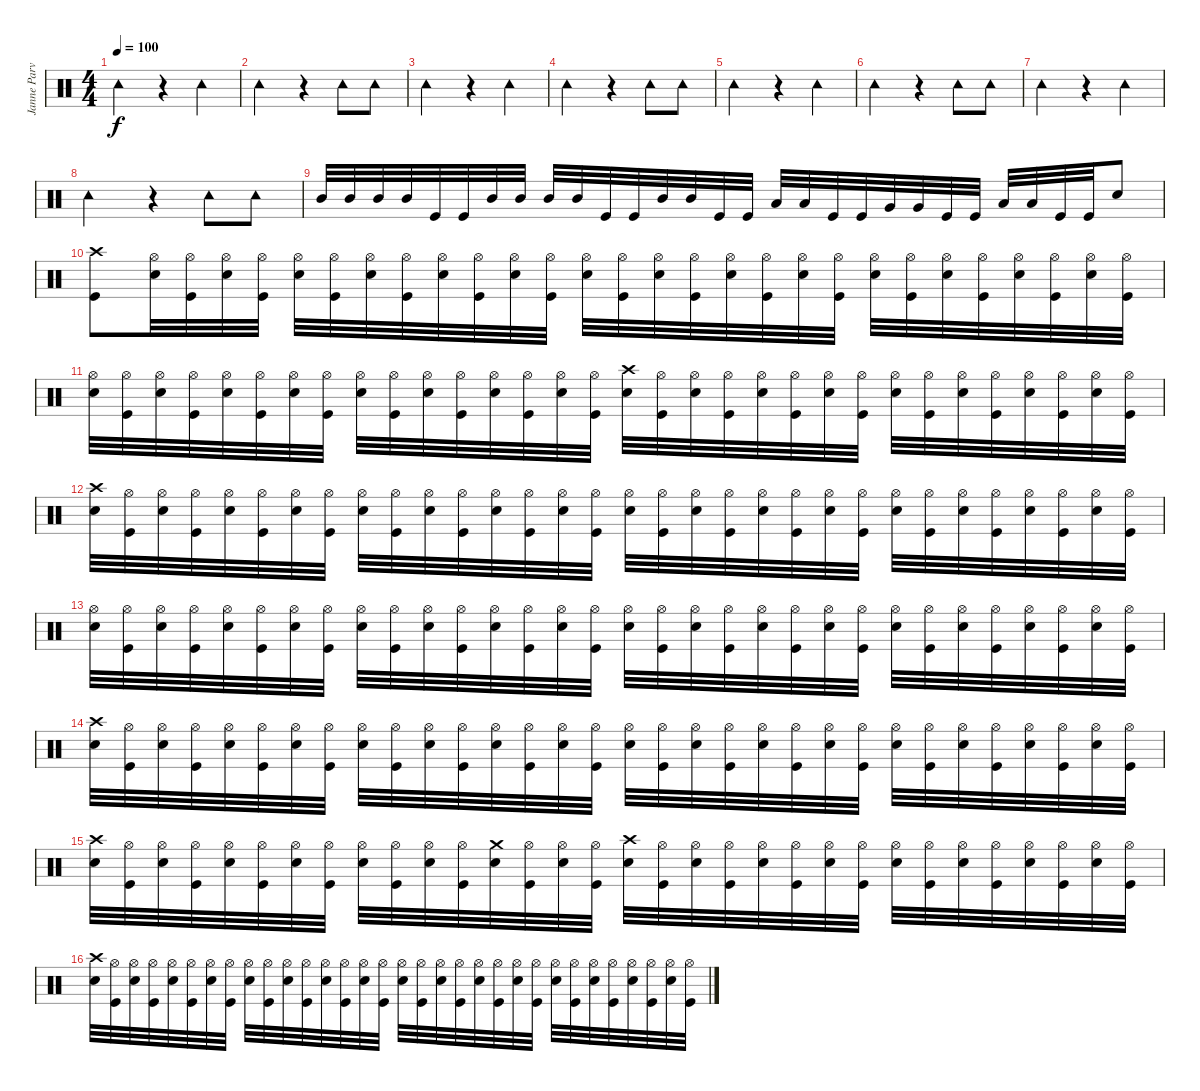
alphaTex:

\track ("Janne Parviainen" "Janne Parv") {instrument percussion}
\staff {score}
\articulation defaults
\ts (4 4)
\tempo 100
\clef neutral
\ks c "Tambourine (hit)".2{dy f}
r.4 "Tambourine (hit)".4 |
"Tambourine (hit)".2 r.4 "Tambourine (hit)".8 "Tambourine (hit)".8 |
"Tambourine (hit)".2 r.4 "Tambourine (hit)".4 |
"Tambourine (hit)".2 r.4 "Tambourine (hit)".8 "Tambourine (hit)".8 |
"Tambourine (hit)".2 r.4 "Tambourine (hit)".4 |
"Tambourine (hit)".2 r.4 "Tambourine (hit)".8 "Tambourine (hit)".8 |
"Tambourine (hit)".2 r.4 "Tambourine (hit)".4 |
"Tambourine (hit)".2 r.4 "Tambourine (hit)".8 "Tambourine (hit)".8 |
"Mid Tom (hit)".32{volume 14} "Mid Tom (hit)".32 "Mid Tom (hit)".32 "Mid Tom (hit)".32 "Kick (hit)".32 "Kick (hit)".32 "Mid Tom (hit)".32 "Mid Tom (hit)".32 "Mid Tom (hit)".32 "Mid Tom (hit)".32 "Kick (hit)".32 "Kick (hit)".32 "Mid Tom (hit)".32 "Mid Tom (hit)".32 "Kick (hit)".32 "Kick (hit)".32 "Low Tom (hit)".32 "Low Tom (hit)".32 "Kick (hit)".32 "Kick (hit)".32 "Very Low Tom (hit)".32 "Very Low Tom (hit)".32 "Kick (hit)".32 "Kick (hit)".32 "Low Floor Tom (hit)".32 "Low Floor Tom (hit)".32 "Kick (hit)".32 "Kick (hit)".32 "Electric Snare (hit)".8 |
("Crash high (hit)" "Kick (hit)").8 ("Hi-Hat (open)" "Electric Snare (hit)").32 ("Hi-Hat (open)" "Kick (hit)").32 ("Hi-Hat (open)" "Electric Snare (hit)").32 ("Hi-Hat (open)" "Kick (hit)").32 ("Hi-Hat (open)" "Electric Snare (hit)").32 ("Hi-Hat (open)" "Kick (hit)").32 ("Hi-Hat (open)" "Electric Snare (hit)").32 ("Hi-Hat (open)" "Kick (hit)").32 ("Hi-Hat (open)" "Electric Snare (hit)").32 ("Hi-Hat (open)" "Kick (hit)").32 ("Hi-Hat (open)" "Electric Snare (hit)").32 ("Hi-Hat (open)" "Kick (hit)").32 ("Hi-Hat (open)" "Electric Snare (hit)").32 ("Hi-Hat (open)" "Kick (hit)").32 ("Hi-Hat (open)" "Electric Snare (hit)").32 ("Hi-Hat (open)" "Kick (hit)").32 ("Hi-Hat (open)" "Electric Snare (hit)").32 ("Hi-Hat (open)" "Kick (hit)").32 ("Hi-Hat (open)" "Electric Snare (hit)").32 ("Hi-Hat (open)" "Kick (hit)").32 ("Hi-Hat (open)" "Electric Snare (hit)").32 ("Hi-Hat (open)" "Kick (hit)").32 ("Hi-Hat (open)" "Electric Snare (hit)").32 ("Hi-Hat (open)" "Kick (hit)").32 ("Hi-Hat (open)" "Electric Snare (hit)").32 ("Hi-Hat (open)" "Kick (hit)").32 ("Hi-Hat (open)" "Electric Snare (hit)").32 ("Hi-Hat (open)" "Kick (hit)").32 |
("Hi-Hat (open)" "Electric Snare (hit)").32 ("Hi-Hat (open)" "Kick (hit)").32 ("Hi-Hat (open)" "Electric Snare (hit)").32 ("Hi-Hat (open)" "Kick (hit)").32 ("Hi-Hat (open)" "Electric Snare (hit)").32 ("Hi-Hat (open)" "Kick (hit)").32 ("Hi-Hat (open)" "Electric Snare (hit)").32 ("Hi-Hat (open)" "Kick (hit)").32 ("Hi-Hat (open)" "Electric Snare (hit)").32 ("Hi-Hat (open)" "Kick (hit)").32 ("Hi-Hat (open)" "Electric Snare (hit)").32 ("Hi-Hat (open)" "Kick (hit)").32 ("Hi-Hat (open)" "Electric Snare (hit)").32 ("Hi-Hat (open)" "Kick (hit)").32 ("Hi-Hat (open)" "Electric Snare (hit)").32 ("Hi-Hat (open)" "Kick (hit)").32 ("Crash high (hit)" "Electric Snare (hit)").32 ("Hi-Hat (open)" "Kick (hit)").32 ("Hi-Hat (open)" "Electric Snare (hit)").32 ("Hi-Hat (open)" "Kick (hit)").32 ("Hi-Hat (open)" "Electric Snare (hit)").32 ("Hi-Hat (open)" "Kick (hit)").32 ("Hi-Hat (open)" "Electric Snare (hit)").32 ("Hi-Hat (open)" "Kick (hit)").32 ("Hi-Hat (open)" "Electric Snare (hit)").32 ("Hi-Hat (open)" "Kick (hit)").32 ("Hi-Hat (open)" "Electric Snare (hit)").32 ("Hi-Hat (open)" "Kick (hit)").32 ("Hi-Hat (open)" "Electric Snare (hit)").32 ("Hi-Hat (open)" "Kick (hit)").32 ("Hi-Hat (open)" "Electric Snare (hit)").32 ("Hi-Hat (open)" "Kick (hit)").32 |
("Crash high (hit)" "Electric Snare (hit)").32 ("Hi-Hat (open)" "Kick (hit)").32 ("Hi-Hat (open)" "Electric Snare (hit)").32 ("Hi-Hat (open)" "Kick (hit)").32 ("Hi-Hat (open)" "Electric Snare (hit)").32 ("Hi-Hat (open)" "Kick (hit)").32 ("Hi-Hat (open)" "Electric Snare (hit)").32 ("Hi-Hat (open)" "Kick (hit)").32 ("Hi-Hat (open)" "Electric Snare (hit)").32 ("Hi-Hat (open)" "Kick (hit)").32 ("Hi-Hat (open)" "Electric Snare (hit)").32 ("Hi-Hat (open)" "Kick (hit)").32 ("Hi-Hat (open)" "Electric Snare (hit)").32 ("Hi-Hat (open)" "Kick (hit)").32 ("Hi-Hat (open)" "Electric Snare (hit)").32 ("Hi-Hat (open)" "Kick (hit)").32 ("Hi-Hat (open)" "Electric Snare (hit)").32 ("Hi-Hat (open)" "Kick (hit)").32 ("Hi-Hat (open)" "Electric Snare (hit)").32 ("Hi-Hat (open)" "Kick (hit)").32 ("Hi-Hat (open)" "Electric Snare (hit)").32 ("Hi-Hat (open)" "Kick (hit)").32 ("Hi-Hat (open)" "Electric Snare (hit)").32 ("Hi-Hat (open)" "Kick (hit)").32 ("Hi-Hat (open)" "Electric Snare (hit)").32 ("Hi-Hat (open)" "Kick (hit)").32 ("Hi-Hat (open)" "Electric Snare (hit)").32 ("Hi-Hat (open)" "Kick (hit)").32 ("Hi-Hat (open)" "Electric Snare (hit)").32 ("Hi-Hat (open)" "Kick (hit)").32 ("Hi-Hat (open)" "Electric Snare (hit)").32 ("Hi-Hat (open)" "Kick (hit)").32 |
("Hi-Hat (open)" "Electric Snare (hit)").32 ("Hi-Hat (open)" "Kick (hit)").32 ("Hi-Hat (open)" "Electric Snare (hit)").32 ("Hi-Hat (open)" "Kick (hit)").32 ("Hi-Hat (open)" "Electric Snare (hit)").32 ("Hi-Hat (open)" "Kick (hit)").32 ("Hi-Hat (open)" "Electric Snare (hit)").32 ("Hi-Hat (open)" "Kick (hit)").32 ("Hi-Hat (open)" "Electric Snare (hit)").32 ("Hi-Hat (open)" "Kick (hit)").32 ("Hi-Hat (open)" "Electric Snare (hit)").32 ("Hi-Hat (open)" "Kick (hit)").32 ("Hi-Hat (open)" "Electric Snare (hit)").32 ("Hi-Hat (open)" "Kick (hit)").32 ("Hi-Hat (open)" "Electric Snare (hit)").32 ("Hi-Hat (open)" "Kick (hit)").32 ("Hi-Hat (open)" "Electric Snare (hit)").32 ("Hi-Hat (open)" "Kick (hit)").32 ("Hi-Hat (open)" "Electric Snare (hit)").32 ("Hi-Hat (open)" "Kick (hit)").32 ("Hi-Hat (open)" "Electric Snare (hit)").32 ("Hi-Hat (open)" "Kick (hit)").32 ("Hi-Hat (open)" "Electric Snare (hit)").32 ("Hi-Hat (open)" "Kick (hit)").32 ("Hi-Hat (open)" "Electric Snare (hit)").32 ("Hi-Hat (open)" "Kick (hit)").32 ("Hi-Hat (open)" "Electric Snare (hit)").32 ("Hi-Hat (open)" "Kick (hit)").32 ("Hi-Hat (open)" "Electric Snare (hit)").32 ("Hi-Hat (open)" "Kick (hit)").32 ("Hi-Hat (open)" "Electric Snare (hit)").32 ("Hi-Hat (open)" "Kick (hit)").32 |
("Crash high (hit)" "Electric Snare (hit)").32 ("Hi-Hat (open)" "Kick (hit)").32 ("Hi-Hat (open)" "Electric Snare (hit)").32 ("Hi-Hat (open)" "Kick (hit)").32 ("Hi-Hat (open)" "Electric Snare (hit)").32 ("Hi-Hat (open)" "Kick (hit)").32 ("Hi-Hat (open)" "Electric Snare (hit)").32 ("Hi-Hat (open)" "Kick (hit)").32 ("Hi-Hat (open)" "Electric Snare (hit)").32 ("Hi-Hat (open)" "Kick (hit)").32 ("Hi-Hat (open)" "Electric Snare (hit)").32 ("Hi-Hat (open)" "Kick (hit)").32 ("Hi-Hat (open)" "Electric Snare (hit)").32 ("Hi-Hat (open)" "Kick (hit)").32 ("Hi-Hat (open)" "Electric Snare (hit)").32 ("Hi-Hat (open)" "Kick (hit)").32 ("Hi-Hat (open)" "Electric Snare (hit)").32 ("Hi-Hat (open)" "Kick (hit)").32 ("Hi-Hat (open)" "Electric Snare (hit)").32 ("Hi-Hat (open)" "Kick (hit)").32 ("Hi-Hat (open)" "Electric Snare (hit)").32 ("Hi-Hat (open)" "Kick (hit)").32 ("Hi-Hat (open)" "Electric Snare (hit)").32 ("Hi-Hat (open)" "Kick (hit)").32 ("Hi-Hat (open)" "Electric Snare (hit)").32 ("Hi-Hat (open)" "Kick (hit)").32 ("Hi-Hat (open)" "Electric Snare (hit)").32 ("Hi-Hat (open)" "Kick (hit)").32 ("Hi-Hat (open)" "Electric Snare (hit)").32 ("Hi-Hat (open)" "Kick (hit)").32 ("Hi-Hat (open)" "Electric Snare (hit)").32 ("Hi-Hat (open)" "Kick (hit)").32 |
("Crash high (hit)" "Electric Snare (hit)").32 ("Hi-Hat (open)" "Kick (hit)").32 ("Hi-Hat (open)" "Electric Snare (hit)").32 ("Hi-Hat (open)" "Kick (hit)").32 ("Hi-Hat (open)" "Electric Snare (hit)").32 ("Hi-Hat (open)" "Kick (hit)").32 ("Hi-Hat (open)" "Electric Snare (hit)").32 ("Hi-Hat (open)" "Kick (hit)").32 ("Hi-Hat (open)" "Electric Snare (hit)").32 ("Hi-Hat (open)" "Kick (hit)").32 ("Hi-Hat (open)" "Electric Snare (hit)").32 ("Hi-Hat (open)" "Kick (hit)").32 ("Crash medium (hit)" "Electric Snare (hit)").32 ("Hi-Hat (open)" "Kick (hit)").32 ("Hi-Hat (open)" "Electric Snare (hit)").32 ("Hi-Hat (open)" "Kick (hit)").32 ("Crash high (hit)" "Electric Snare (hit)").32 ("Hi-Hat (open)" "Kick (hit)").32 ("Hi-Hat (open)" "Electric Snare (hit)").32 ("Hi-Hat (open)" "Kick (hit)").32 ("Hi-Hat (open)" "Electric Snare (hit)").32 ("Hi-Hat (open)" "Kick (hit)").32 ("Hi-Hat (open)" "Electric Snare (hit)").32 ("Hi-Hat (open)" "Kick (hit)").32 ("Hi-Hat (open)" "Electric Snare (hit)").32 ("Hi-Hat (open)" "Kick (hit)").32 ("Hi-Hat (open)" "Electric Snare (hit)").32 ("Hi-Hat (open)" "Kick (hit)").32 ("Hi-Hat (open)" "Electric Snare (hit)").32 ("Hi-Hat (open)" "Kick (hit)").32 ("Hi-Hat (open)" "Electric Snare (hit)").32 ("Hi-Hat (open)" "Kick (hit)").32 |
("Crash high (hit)" "Electric Snare (hit)").32 ("Hi-Hat (open)" "Kick (hit)").32 ("Hi-Hat (open)" "Electric Snare (hit)").32 ("Hi-Hat (open)" "Kick (hit)").32 ("Hi-Hat (open)" "Electric Snare (hit)").32 ("Hi-Hat (open)" "Kick (hit)").32 ("Hi-Hat (open)" "Electric Snare (hit)").32 ("Hi-Hat (open)" "Kick (hit)").32 ("Hi-Hat (open)" "Electric Snare (hit)").32 ("Hi-Hat (open)" "Kick (hit)").32 ("Hi-Hat (open)" "Electric Snare (hit)").32 ("Hi-Hat (open)" "Kick (hit)").32 ("Hi-Hat (open)" "Electric Snare (hit)").32 ("Hi-Hat (open)" "Kick (hit)").32 ("Hi-Hat (open)" "Electric Snare (hit)").32 ("Hi-Hat (open)" "Kick (hit)").32 ("Hi-Hat (open)" "Electric Snare (hit)").32 ("Hi-Hat (open)" "Kick (hit)").32 ("Hi-Hat (open)" "Electric Snare (hit)").32 ("Hi-Hat (open)" "Kick (hit)").32 ("Hi-Hat (open)" "Electric Snare (hit)").32 ("Hi-Hat (open)" "Kick (hit)").32 ("Hi-Hat (open)" "Electric Snare (hit)").32 ("Hi-Hat (open)" "Kick (hit)").32 ("Hi-Hat (open)" "Electric Snare (hit)").32 ("Hi-Hat (open)" "Kick (hit)").32 ("Hi-Hat (open)" "Electric Snare (hit)").32 ("Hi-Hat (open)" "Kick (hit)").32 ("Hi-Hat (open)" "Electric Snare (hit)").32 ("Hi-Hat (open)" "Kick (hit)").32 ("Hi-Hat (open)" "Electric Snare (hit)").32 ("Hi-Hat (open)" "Kick (hit)").32
